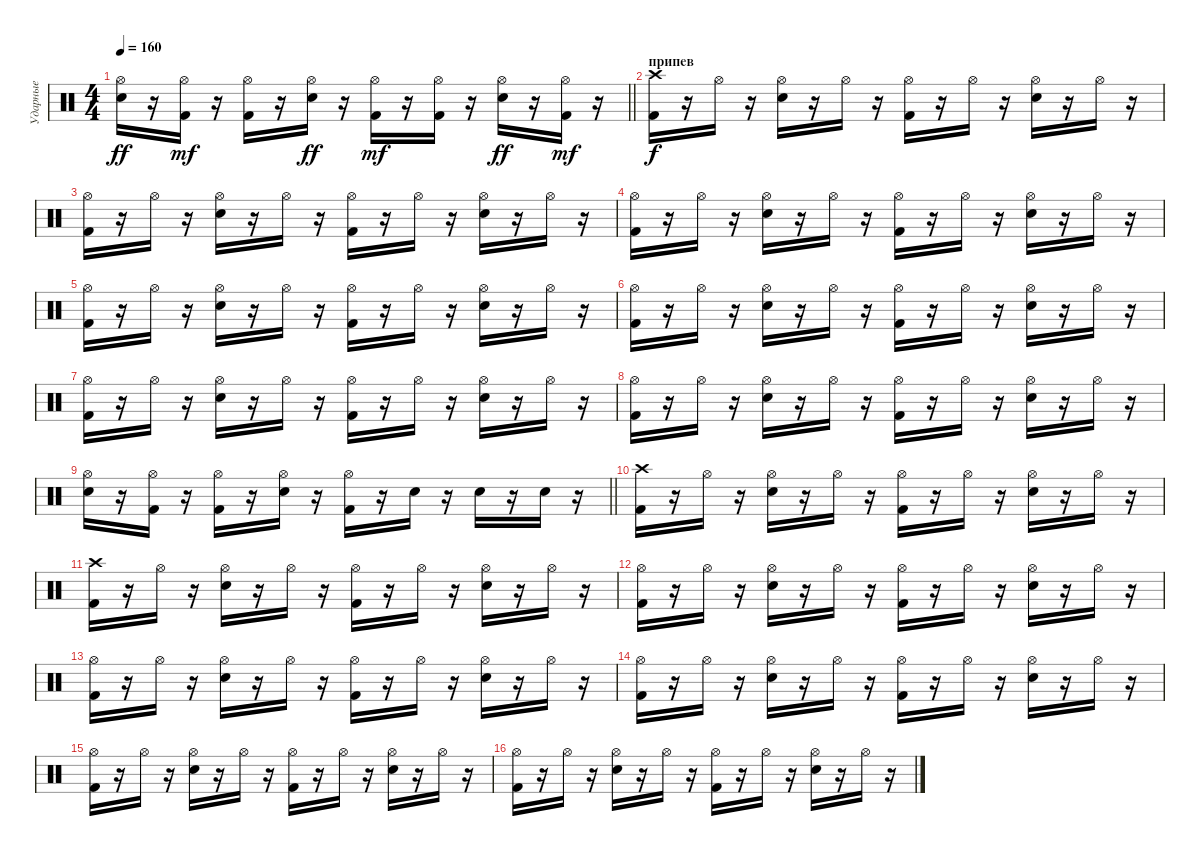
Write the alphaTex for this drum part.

\track ("Ударные" "Ударные") {instrument percussion}
\staff {score}
\articulation defaults
\ts (4 4)
\tempo 160
\clef neutral
\barLineRight lightlight
\ks c
("Hi-Hat (open)" "Electric Snare (hit)").16{dy ff} r.16 ("Hi-Hat (open)" "Kick (hit) 2").16{dy mf} r.16 ("Hi-Hat (open)" "Kick (hit) 2").16 r.16 ("Hi-Hat (open)" "Electric Snare (hit)").16{dy ff} r.16 ("Hi-Hat (open)" "Kick (hit) 2").16{dy mf} r.16 ("Hi-Hat (open)" "Kick (hit) 2").16 r.16 ("Hi-Hat (open)" "Electric Snare (hit)").16{dy ff} r.16 ("Hi-Hat (open)" "Kick (hit) 2").16{dy mf} r.16 |
\section ("" "припев")
("Crash high (hit)" "Kick (hit) 2").16{dy f} r.16 "Hi-Hat (open)".16 r.16 ("Hi-Hat (open)" "Electric Snare (hit)").16 r.16 "Hi-Hat (open)".16 r.16 ("Hi-Hat (open)" "Kick (hit) 2").16 r.16 "Hi-Hat (open)".16 r.16 ("Hi-Hat (open)" "Electric Snare (hit)").16 r.16 "Hi-Hat (open)".16 r.16 |
("Hi-Hat (open)" "Kick (hit) 2").16 r.16 "Hi-Hat (open)".16 r.16 ("Hi-Hat (open)" "Electric Snare (hit)").16 r.16 "Hi-Hat (open)".16 r.16 ("Hi-Hat (open)" "Kick (hit) 2").16 r.16 "Hi-Hat (open)".16 r.16 ("Hi-Hat (open)" "Electric Snare (hit)").16 r.16 "Hi-Hat (open)".16 r.16 |
("Hi-Hat (open)" "Kick (hit) 2").16 r.16 "Hi-Hat (open)".16 r.16 ("Hi-Hat (open)" "Electric Snare (hit)").16 r.16 "Hi-Hat (open)".16 r.16 ("Hi-Hat (open)" "Kick (hit) 2").16 r.16 "Hi-Hat (open)".16 r.16 ("Hi-Hat (open)" "Electric Snare (hit)").16 r.16 "Hi-Hat (open)".16 r.16 |
("Hi-Hat (open)" "Kick (hit) 2").16 r.16 "Hi-Hat (open)".16 r.16 ("Hi-Hat (open)" "Electric Snare (hit)").16 r.16 "Hi-Hat (open)".16 r.16 ("Hi-Hat (open)" "Kick (hit) 2").16 r.16 "Hi-Hat (open)".16 r.16 ("Hi-Hat (open)" "Electric Snare (hit)").16 r.16 "Hi-Hat (open)".16 r.16 |
("Hi-Hat (open)" "Kick (hit) 2").16 r.16 "Hi-Hat (open)".16 r.16 ("Hi-Hat (open)" "Electric Snare (hit)").16 r.16 "Hi-Hat (open)".16 r.16 ("Hi-Hat (open)" "Kick (hit) 2").16 r.16 "Hi-Hat (open)".16 r.16 ("Hi-Hat (open)" "Electric Snare (hit)").16 r.16 "Hi-Hat (open)".16 r.16 |
("Hi-Hat (open)" "Kick (hit) 2").16 r.16 "Hi-Hat (open)".16 r.16 ("Hi-Hat (open)" "Electric Snare (hit)").16 r.16 "Hi-Hat (open)".16 r.16 ("Hi-Hat (open)" "Kick (hit) 2").16 r.16 "Hi-Hat (open)".16 r.16 ("Hi-Hat (open)" "Electric Snare (hit)").16 r.16 "Hi-Hat (open)".16 r.16 |
("Hi-Hat (open)" "Kick (hit) 2").16 r.16 "Hi-Hat (open)".16 r.16 ("Hi-Hat (open)" "Electric Snare (hit)").16 r.16 "Hi-Hat (open)".16 r.16 ("Hi-Hat (open)" "Kick (hit) 2").16 r.16 "Hi-Hat (open)".16 r.16 ("Hi-Hat (open)" "Electric Snare (hit)").16 r.16 "Hi-Hat (open)".16 r.16 |
\barLineRight lightlight
("Hi-Hat (open)" "Electric Snare (hit)").16 r.16 ("Hi-Hat (open)" "Kick (hit) 2").16 r.16 ("Hi-Hat (open)" "Kick (hit) 2").16 r.16 ("Hi-Hat (open)" "Electric Snare (hit)").16 r.16 ("Hi-Hat (open)" "Kick (hit) 2").16 r.16 "Electric Snare (hit)".16 r.16 "Electric Snare (hit)".16 r.16 "Electric Snare (hit)".16 r.16 |
("Crash high (hit)" "Kick (hit) 2").16 r.16 "Hi-Hat (open)".16 r.16 ("Hi-Hat (open)" "Electric Snare (hit)").16 r.16 "Hi-Hat (open)".16 r.16 ("Hi-Hat (open)" "Kick (hit) 2").16 r.16 "Hi-Hat (open)".16 r.16 ("Hi-Hat (open)" "Electric Snare (hit)").16 r.16 "Hi-Hat (open)".16 r.16 |
("Crash high (hit)" "Kick (hit) 2").16 r.16 "Hi-Hat (open)".16 r.16 ("Hi-Hat (open)" "Electric Snare (hit)").16 r.16 "Hi-Hat (open)".16 r.16 ("Hi-Hat (open)" "Kick (hit) 2").16 r.16 "Hi-Hat (open)".16 r.16 ("Hi-Hat (open)" "Electric Snare (hit)").16 r.16 "Hi-Hat (open)".16 r.16 |
("Hi-Hat (open)" "Kick (hit) 2").16 r.16 "Hi-Hat (open)".16 r.16 ("Hi-Hat (open)" "Electric Snare (hit)").16 r.16 "Hi-Hat (open)".16 r.16 ("Hi-Hat (open)" "Kick (hit) 2").16 r.16 "Hi-Hat (open)".16 r.16 ("Hi-Hat (open)" "Electric Snare (hit)").16 r.16 "Hi-Hat (open)".16 r.16 |
("Hi-Hat (open)" "Kick (hit) 2").16 r.16 "Hi-Hat (open)".16 r.16 ("Hi-Hat (open)" "Electric Snare (hit)").16 r.16 "Hi-Hat (open)".16 r.16 ("Hi-Hat (open)" "Kick (hit) 2").16 r.16 "Hi-Hat (open)".16 r.16 ("Hi-Hat (open)" "Electric Snare (hit)").16 r.16 "Hi-Hat (open)".16 r.16 |
("Hi-Hat (open)" "Kick (hit) 2").16 r.16 "Hi-Hat (open)".16 r.16 ("Hi-Hat (open)" "Electric Snare (hit)").16 r.16 "Hi-Hat (open)".16 r.16 ("Hi-Hat (open)" "Kick (hit) 2").16 r.16 "Hi-Hat (open)".16 r.16 ("Hi-Hat (open)" "Electric Snare (hit)").16 r.16 "Hi-Hat (open)".16 r.16 |
("Hi-Hat (open)" "Kick (hit) 2").16 r.16 "Hi-Hat (open)".16 r.16 ("Hi-Hat (open)" "Electric Snare (hit)").16 r.16 "Hi-Hat (open)".16 r.16 ("Hi-Hat (open)" "Kick (hit) 2").16 r.16 "Hi-Hat (open)".16 r.16 ("Hi-Hat (open)" "Electric Snare (hit)").16 r.16 "Hi-Hat (open)".16 r.16 |
("Hi-Hat (open)" "Kick (hit) 2").16 r.16 "Hi-Hat (open)".16 r.16 ("Hi-Hat (open)" "Electric Snare (hit)").16 r.16 "Hi-Hat (open)".16 r.16 ("Hi-Hat (open)" "Kick (hit) 2").16 r.16 "Hi-Hat (open)".16 r.16 ("Hi-Hat (open)" "Electric Snare (hit)").16 r.16 "Hi-Hat (open)".16 r.16
